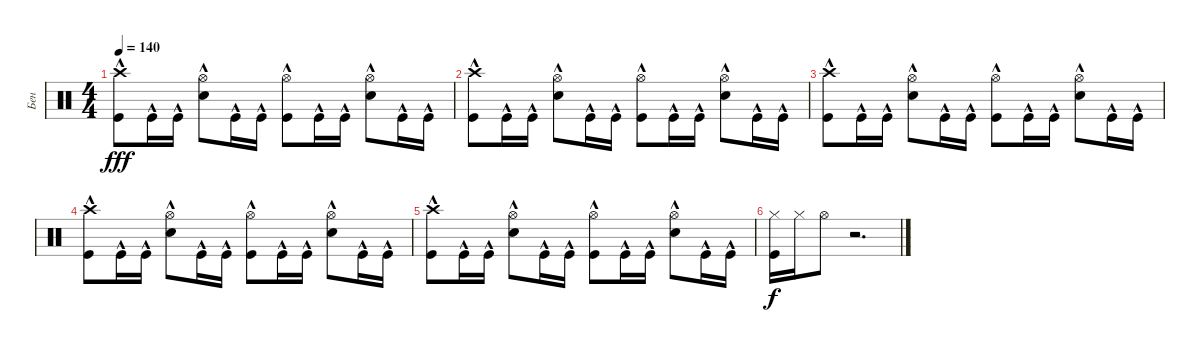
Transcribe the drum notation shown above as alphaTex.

\track ("Бен" "Бен") {instrument percussion}
\staff {score}
\articulation defaults
\ts (4 4)
\tempo 140
\clef neutral
\ks c
("Kick (hit)"{hac} "Crash high (hit)"{hac}).8{dy fff} "Kick (hit)"{hac}.16 "Kick (hit)"{hac}.16 ("Snare (hit) 2"{hac} "Hi-Hat (open)").8 "Kick (hit)"{hac}.16 "Kick (hit)"{hac}.16 ("Kick (hit)"{hac} "Hi-Hat (open)").8 "Kick (hit)"{hac}.16 "Kick (hit)"{hac}.16 ("Snare (hit) 2"{hac} "Hi-Hat (open)").8 "Kick (hit)"{hac}.16 "Kick (hit)"{hac}.16 |
("Kick (hit)"{hac} "Crash high (hit)"{hac}).8 "Kick (hit)"{hac}.16 "Kick (hit)"{hac}.16 ("Snare (hit) 2"{hac} "Hi-Hat (open)").8 "Kick (hit)"{hac}.16 "Kick (hit)"{hac}.16 ("Kick (hit)"{hac} "Hi-Hat (open)").8 "Kick (hit)"{hac}.16 "Kick (hit)"{hac}.16 ("Snare (hit) 2"{hac} "Hi-Hat (open)").8 "Kick (hit)"{hac}.16 "Kick (hit)"{hac}.16 |
("Kick (hit)"{hac} "Crash high (hit)"{hac}).8 "Kick (hit)"{hac}.16 "Kick (hit)"{hac}.16 ("Snare (hit) 2"{hac} "Hi-Hat (open)").8 "Kick (hit)"{hac}.16 "Kick (hit)"{hac}.16 ("Kick (hit)"{hac} "Hi-Hat (open)").8 "Kick (hit)"{hac}.16 "Kick (hit)"{hac}.16 ("Snare (hit) 2"{hac} "Hi-Hat (open)").8 "Kick (hit)"{hac}.16 "Kick (hit)"{hac}.16 |
("Kick (hit)"{hac} "Crash high (hit)"{hac}).8 "Kick (hit)"{hac}.16 "Kick (hit)"{hac}.16 ("Snare (hit) 2"{hac} "Hi-Hat (open)").8 "Kick (hit)"{hac}.16 "Kick (hit)"{hac}.16 ("Kick (hit)"{hac} "Hi-Hat (open)").8 "Kick (hit)"{hac}.16 "Kick (hit)"{hac}.16 ("Snare (hit) 2"{hac} "Hi-Hat (open)").8 "Kick (hit)"{hac}.16 "Kick (hit)"{hac}.16 |
("Kick (hit)"{hac} "Crash high (hit)"{hac}).8 "Kick (hit)"{hac}.16 "Kick (hit)"{hac}.16 ("Snare (hit) 2"{hac} "Hi-Hat (open)").8 "Kick (hit)"{hac}.16 "Kick (hit)"{hac}.16 ("Kick (hit)"{hac} "Hi-Hat (open)").8 "Kick (hit)"{hac}.16 "Kick (hit)"{hac}.16 ("Snare (hit) 2"{hac} "Hi-Hat (open)").8 "Kick (hit)"{hac}.16 "Kick (hit)"{hac}.16 |
("Hi-Hat (closed)" "Kick (hit)").16{dy f} "Hi-Hat (closed)".16 "Hi-Hat (open)".8 r.2{d}
